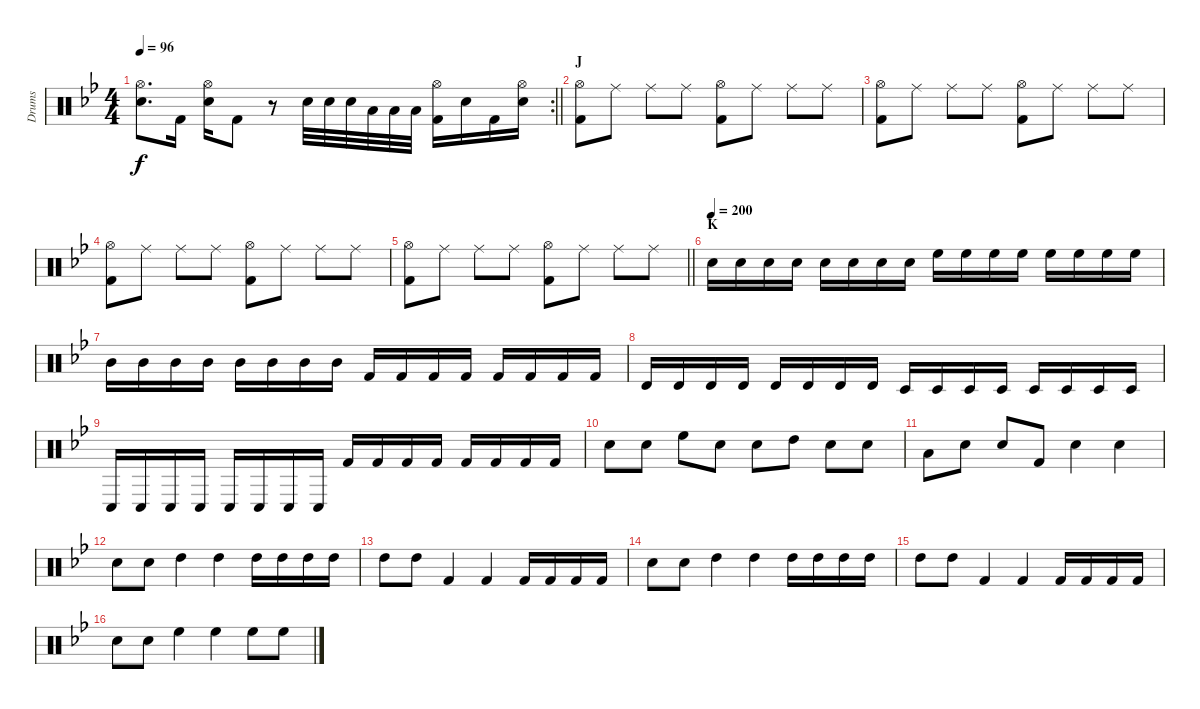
\track ("Drums" "Drums") {instrument percussion}
\staff {score}
\articulation defaults
\rc 2
\ts (4 4)
\tempo 96
\clef neutral
\barLineRight lightlight
\ks gminor
("Hi-Hat (open)" "Electric Snare (hit)").8{d dy f} "Kick (hit) 2".16 ("Hi-Hat (open)" "Electric Snare (hit)").16 "Kick (hit) 2".8 r.8 "Electric Snare (hit)".32 "Electric Snare (hit)".32 "Electric Snare (hit)".32 "Low Tom (hit)".32 "Low Tom (hit)".32 "Low Tom (hit)".32 ("Hi-Hat (open)" "Kick (hit) 2").16 "Electric Snare (hit)".16 "Kick (hit) 2".16 ("Hi-Hat (open)" "Electric Snare (hit)").16 |
\section ("" "J")
("Kick (hit) 2" "Hi-Hat (open)").8 "Ride (middle)".8 "Ride (middle)".8 "Ride (middle)".8 ("Hi-Hat (open)" "Kick (hit) 2").8 "Ride (middle)".8 "Ride (middle)".8 "Ride (middle)".8 |
("Kick (hit) 2" "Hi-Hat (open)").8 "Ride (middle)".8 "Ride (middle)".8 "Ride (middle)".8 ("Hi-Hat (open)" "Kick (hit) 2").8 "Ride (middle)".8 "Ride (middle)".8 "Ride (middle)".8 |
("Kick (hit) 2" "Hi-Hat (open)").8 "Ride (middle)".8 "Ride (middle)".8 "Ride (middle)".8 ("Hi-Hat (open)" "Kick (hit) 2").8 "Ride (middle)".8 "Ride (middle)".8 "Ride (middle)".8 |
\barLineRight lightlight
("Kick (hit) 2" "Hi-Hat (open)").8 "Ride (middle)".8 "Ride (middle)".8 "Ride (middle)".8 ("Hi-Hat (open)" "Kick (hit) 2").8 "Ride (middle)".8 "Ride (middle)".8 "Ride (middle)".8 |
\section ("" "K")
\tempo (200)
"Electric Snare (hit)".16 "Electric Snare (hit)".16 "Electric Snare (hit)".16 "Electric Snare (hit)".16 "Electric Snare (hit)".16 "Electric Snare (hit)".16 "Electric Snare (hit)".16 "Electric Snare (hit)".16 "High Floor Tom (hit)".16 "High Floor Tom (hit)".16 "High Floor Tom (hit)".16 "High Floor Tom (hit)".16 "High Floor Tom (hit)".16 "High Floor Tom (hit)".16 "High Floor Tom (hit)".16 "High Floor Tom (hit)".16 |
"Mid Tom (hit)".16 "Mid Tom (hit)".16 "Mid Tom (hit)".16 "Mid Tom (hit)".16 "Mid Tom (hit)".16 "Mid Tom (hit)".16 "Mid Tom (hit)".16 "Mid Tom (hit)".16 "Kick (hit) 2".16 "Kick (hit) 2".16 "Kick (hit) 2".16 "Kick (hit) 2".16 "Kick (hit) 2".16 "Kick (hit) 2".16 "Kick (hit) 2".16 "Kick (hit) 2".16 |
"Timbale high (hit)".16 "Timbale high (hit)".16 "Timbale high (hit)".16 "Timbale high (hit)".16 "Timbale high (hit)".16 "Timbale high (hit)".16 "Timbale high (hit)".16 "Timbale high (hit)".16 "Timbale low (hit)".16 "Timbale low (hit)".16 "Timbale low (hit)".16 "Timbale low (hit)".16 "Timbale low (hit)".16 "Timbale low (hit)".16 "Timbale low (hit)".16 "Timbale low (hit)".16 |
"Conga low (hit)".16 "Conga low (hit)".16 "Conga low (hit)".16 "Conga low (hit)".16 "Conga low (hit)".16 "Conga low (hit)".16 "Conga low (hit)".16 "Conga low (hit)".16 "Kick (hit) 2".16 "Kick (hit) 2".16 "Kick (hit) 2".16 "Kick (hit) 2".16 "Kick (hit) 2".16 "Kick (hit) 2".16 "Kick (hit) 2".16 "Kick (hit) 2".16 |
"Snare (hit) 2".8 "Snare (hit) 2".8 "High Floor Tom (hit)".8 "Snare (hit) 2".8 "Snare (hit) 2".8 "High Tom (hit)".8 "Snare (hit) 2".8 "Snare (hit) 2".8 |
"Low Floor Tom (hit)".8 "Snare (hit) 2".8 "Snare (hit) 2".8 "Kick (hit) 2".8 "Snare (hit) 2".4 "Snare (hit) 2".4 |
"Snare (hit) 2".8 "Snare (hit) 2".8 "High Tom (hit)".4 "High Tom (hit)".4 "High Tom (hit)".16 "High Tom (hit)".16 "High Tom (hit)".16 "High Tom (hit)".16 |
"High Tom (hit)".8 "High Tom (hit)".8 "Kick (hit) 2".4 "Kick (hit) 2".4 "Kick (hit) 2".16 "Kick (hit) 2".16 "Kick (hit) 2".16 "Kick (hit) 2".16 |
"Electric Snare (hit)".8 "Electric Snare (hit)".8 "High Tom (hit)".4 "High Tom (hit)".4 "High Tom (hit)".16 "High Tom (hit)".16 "High Tom (hit)".16 "High Tom (hit)".16 |
"High Tom (hit)".8 "High Tom (hit)".8 "Kick (hit) 2".4 "Kick (hit) 2".4 "Kick (hit) 2".16 "Kick (hit) 2".16 "Kick (hit) 2".16 "Kick (hit) 2".16 |
"Electric Snare (hit)".8 "Electric Snare (hit)".8 "High Floor Tom (hit)".4 "High Floor Tom (hit)".4 "High Floor Tom (hit)".8 "High Floor Tom (hit)".8
